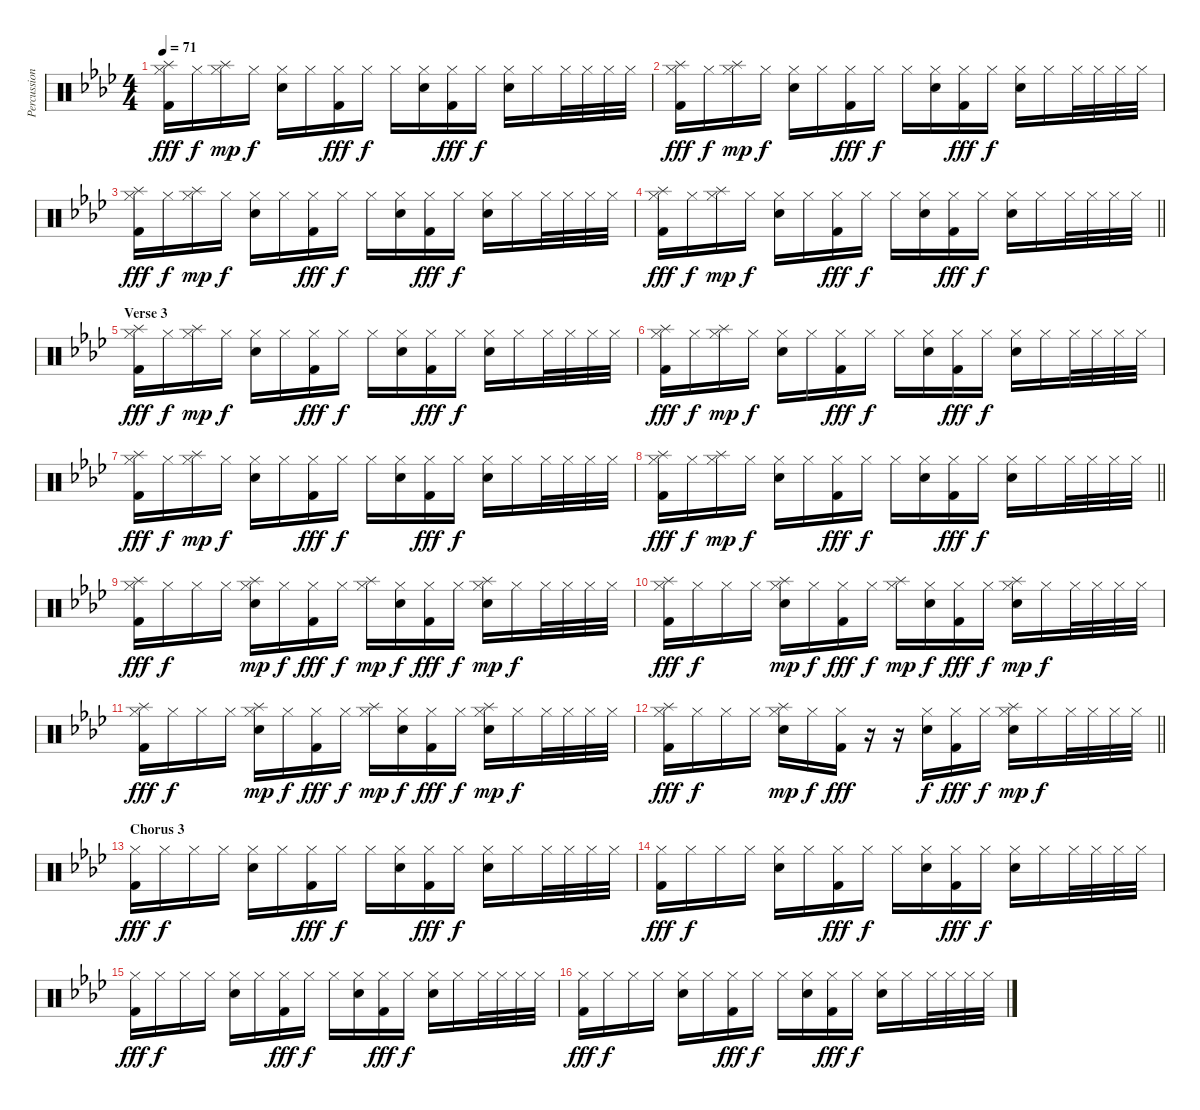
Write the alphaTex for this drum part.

\track ("Percussion" "Percussion") {instrument percussion}
\staff {score}
\articulation defaults
\ts (4 4)
\tempo 71
\clef neutral
\ks ab
("Splash (hit)" "Hi-Hat (closed)" "Kick (hit) 2").16{dy fff} "Hi-Hat (closed)".16{dy f} ("Splash (hit)" "Hi-Hat (closed)").16{dy mp} "Hi-Hat (closed)".16{dy f} ("Hi-Hat (closed)" "Snare (hit) 2").16 "Hi-Hat (closed)".16 ("Hi-Hat (closed)" "Kick (hit) 2").16{dy fff} "Hi-Hat (closed)".16{dy f} "Hi-Hat (closed)".16 ("Hi-Hat (closed)" "Snare (hit) 2").16 ("Hi-Hat (closed)" "Kick (hit) 2").16{dy fff} "Hi-Hat (closed)".16{dy f} ("Hi-Hat (closed)" "Snare (hit) 2").16 "Hi-Hat (closed)".16 "Hi-Hat (closed)".32 "Hi-Hat (closed)".32 "Hi-Hat (closed)".32 "Hi-Hat (closed)".32 |
("Splash (hit)" "Hi-Hat (closed)" "Kick (hit) 2").16{dy fff} "Hi-Hat (closed)".16{dy f} ("Splash (hit)" "Hi-Hat (closed)").16{dy mp} "Hi-Hat (closed)".16{dy f} ("Hi-Hat (closed)" "Snare (hit) 2").16 "Hi-Hat (closed)".16 ("Hi-Hat (closed)" "Kick (hit) 2").16{dy fff} "Hi-Hat (closed)".16{dy f} "Hi-Hat (closed)".16 ("Hi-Hat (closed)" "Snare (hit) 2").16 ("Hi-Hat (closed)" "Kick (hit) 2").16{dy fff} "Hi-Hat (closed)".16{dy f} ("Hi-Hat (closed)" "Snare (hit) 2").16 "Hi-Hat (closed)".16 "Hi-Hat (closed)".32 "Hi-Hat (closed)".32 "Hi-Hat (closed)".32 "Hi-Hat (closed)".32 |
("Splash (hit)" "Hi-Hat (closed)" "Kick (hit) 2").16{dy fff} "Hi-Hat (closed)".16{dy f} ("Splash (hit)" "Hi-Hat (closed)").16{dy mp} "Hi-Hat (closed)".16{dy f} ("Hi-Hat (closed)" "Snare (hit) 2").16 "Hi-Hat (closed)".16 ("Hi-Hat (closed)" "Kick (hit) 2").16{dy fff} "Hi-Hat (closed)".16{dy f} "Hi-Hat (closed)".16 ("Hi-Hat (closed)" "Snare (hit) 2").16 ("Hi-Hat (closed)" "Kick (hit) 2").16{dy fff} "Hi-Hat (closed)".16{dy f} ("Hi-Hat (closed)" "Snare (hit) 2").16 "Hi-Hat (closed)".16 "Hi-Hat (closed)".32 "Hi-Hat (closed)".32 "Hi-Hat (closed)".32 "Hi-Hat (closed)".32 |
\barLineRight lightlight
("Splash (hit)" "Hi-Hat (closed)" "Kick (hit) 2").16{dy fff} "Hi-Hat (closed)".16{dy f} ("Splash (hit)" "Hi-Hat (closed)").16{dy mp} "Hi-Hat (closed)".16{dy f} ("Hi-Hat (closed)" "Snare (hit) 2").16 "Hi-Hat (closed)".16 ("Hi-Hat (closed)" "Kick (hit) 2").16{dy fff} "Hi-Hat (closed)".16{dy f} "Hi-Hat (closed)".16 ("Hi-Hat (closed)" "Snare (hit) 2").16 ("Hi-Hat (closed)" "Kick (hit) 2").16{dy fff} "Hi-Hat (closed)".16{dy f} ("Hi-Hat (closed)" "Snare (hit) 2").16 "Hi-Hat (closed)".16 "Hi-Hat (closed)".32 "Hi-Hat (closed)".32 "Hi-Hat (closed)".32 "Hi-Hat (closed)".32 |
\section ("" "Verse 3")
("Splash (hit)" "Hi-Hat (closed)" "Kick (hit) 2").16{dy fff} "Hi-Hat (closed)".16{dy f} ("Splash (hit)" "Hi-Hat (closed)").16{dy mp} "Hi-Hat (closed)".16{dy f} ("Hi-Hat (closed)" "Snare (hit) 2").16 "Hi-Hat (closed)".16 ("Hi-Hat (closed)" "Kick (hit) 2").16{dy fff} "Hi-Hat (closed)".16{dy f} "Hi-Hat (closed)".16 ("Hi-Hat (closed)" "Snare (hit) 2").16 ("Hi-Hat (closed)" "Kick (hit) 2").16{dy fff} "Hi-Hat (closed)".16{dy f} ("Hi-Hat (closed)" "Snare (hit) 2").16 "Hi-Hat (closed)".16 "Hi-Hat (closed)".32 "Hi-Hat (closed)".32 "Hi-Hat (closed)".32 "Hi-Hat (closed)".32 |
("Splash (hit)" "Hi-Hat (closed)" "Kick (hit) 2").16{dy fff} "Hi-Hat (closed)".16{dy f} ("Splash (hit)" "Hi-Hat (closed)").16{dy mp} "Hi-Hat (closed)".16{dy f} ("Hi-Hat (closed)" "Snare (hit) 2").16 "Hi-Hat (closed)".16 ("Hi-Hat (closed)" "Kick (hit) 2").16{dy fff} "Hi-Hat (closed)".16{dy f} "Hi-Hat (closed)".16 ("Hi-Hat (closed)" "Snare (hit) 2").16 ("Hi-Hat (closed)" "Kick (hit) 2").16{dy fff} "Hi-Hat (closed)".16{dy f} ("Hi-Hat (closed)" "Snare (hit) 2").16 "Hi-Hat (closed)".16 "Hi-Hat (closed)".32 "Hi-Hat (closed)".32 "Hi-Hat (closed)".32 "Hi-Hat (closed)".32 |
("Splash (hit)" "Hi-Hat (closed)" "Kick (hit) 2").16{dy fff} "Hi-Hat (closed)".16{dy f} ("Splash (hit)" "Hi-Hat (closed)").16{dy mp} "Hi-Hat (closed)".16{dy f} ("Hi-Hat (closed)" "Snare (hit) 2").16 "Hi-Hat (closed)".16 ("Hi-Hat (closed)" "Kick (hit) 2").16{dy fff} "Hi-Hat (closed)".16{dy f} "Hi-Hat (closed)".16 ("Hi-Hat (closed)" "Snare (hit) 2").16 ("Hi-Hat (closed)" "Kick (hit) 2").16{dy fff} "Hi-Hat (closed)".16{dy f} ("Hi-Hat (closed)" "Snare (hit) 2").16 "Hi-Hat (closed)".16 "Hi-Hat (closed)".32 "Hi-Hat (closed)".32 "Hi-Hat (closed)".32 "Hi-Hat (closed)".32 |
\barLineRight lightlight
("Splash (hit)" "Hi-Hat (closed)" "Kick (hit) 2").16{dy fff} "Hi-Hat (closed)".16{dy f} ("Splash (hit)" "Hi-Hat (closed)").16{dy mp} "Hi-Hat (closed)".16{dy f} ("Hi-Hat (closed)" "Snare (hit) 2").16 "Hi-Hat (closed)".16 ("Hi-Hat (closed)" "Kick (hit) 2").16{dy fff} "Hi-Hat (closed)".16{dy f} "Hi-Hat (closed)".16 ("Hi-Hat (closed)" "Snare (hit) 2").16 ("Hi-Hat (closed)" "Kick (hit) 2").16{dy fff} "Hi-Hat (closed)".16{dy f} ("Hi-Hat (closed)" "Snare (hit) 2").16 "Hi-Hat (closed)".16 "Hi-Hat (closed)".32 "Hi-Hat (closed)".32 "Hi-Hat (closed)".32 "Hi-Hat (closed)".32 |
("Splash (hit)" "Hi-Hat (closed)" "Kick (hit) 2").16{dy fff} "Hi-Hat (closed)".16{dy f} "Hi-Hat (closed)".16 "Hi-Hat (closed)".16 ("Splash (hit)" "Hi-Hat (closed)" "Snare (hit) 2").16{dy mp} "Hi-Hat (closed)".16{dy f} ("Hi-Hat (closed)" "Kick (hit) 2").16{dy fff} "Hi-Hat (closed)".16{dy f} ("Splash (hit)" "Hi-Hat (closed)").16{dy mp} ("Hi-Hat (closed)" "Snare (hit) 2").16{dy f} ("Hi-Hat (closed)" "Kick (hit) 2").16{dy fff} "Hi-Hat (closed)".16{dy f} ("Splash (hit)" "Hi-Hat (closed)" "Snare (hit) 2").16{dy mp} "Hi-Hat (closed)".16{dy f} "Hi-Hat (closed)".32 "Hi-Hat (closed)".32 "Hi-Hat (closed)".32 "Hi-Hat (closed)".32 |
("Splash (hit)" "Hi-Hat (closed)" "Kick (hit) 2").16{dy fff} "Hi-Hat (closed)".16{dy f} "Hi-Hat (closed)".16 "Hi-Hat (closed)".16 ("Splash (hit)" "Hi-Hat (closed)" "Snare (hit) 2").16{dy mp} "Hi-Hat (closed)".16{dy f} ("Hi-Hat (closed)" "Kick (hit) 2").16{dy fff} "Hi-Hat (closed)".16{dy f} ("Splash (hit)" "Hi-Hat (closed)").16{dy mp} ("Hi-Hat (closed)" "Snare (hit) 2").16{dy f} ("Hi-Hat (closed)" "Kick (hit) 2").16{dy fff} "Hi-Hat (closed)".16{dy f} ("Splash (hit)" "Hi-Hat (closed)" "Snare (hit) 2").16{dy mp} "Hi-Hat (closed)".16{dy f} "Hi-Hat (closed)".32 "Hi-Hat (closed)".32 "Hi-Hat (closed)".32 "Hi-Hat (closed)".32 |
("Splash (hit)" "Hi-Hat (closed)" "Kick (hit) 2").16{dy fff} "Hi-Hat (closed)".16{dy f} "Hi-Hat (closed)".16 "Hi-Hat (closed)".16 ("Splash (hit)" "Hi-Hat (closed)" "Snare (hit) 2").16{dy mp} "Hi-Hat (closed)".16{dy f} ("Hi-Hat (closed)" "Kick (hit) 2").16{dy fff} "Hi-Hat (closed)".16{dy f} ("Splash (hit)" "Hi-Hat (closed)").16{dy mp} ("Hi-Hat (closed)" "Snare (hit) 2").16{dy f} ("Hi-Hat (closed)" "Kick (hit) 2").16{dy fff} "Hi-Hat (closed)".16{dy f} ("Splash (hit)" "Hi-Hat (closed)" "Snare (hit) 2").16{dy mp} "Hi-Hat (closed)".16{dy f} "Hi-Hat (closed)".32 "Hi-Hat (closed)".32 "Hi-Hat (closed)".32 "Hi-Hat (closed)".32 |
\barLineRight lightlight
("Splash (hit)" "Hi-Hat (closed)" "Kick (hit) 2").16{dy fff} "Hi-Hat (closed)".16{dy f} "Hi-Hat (closed)".16 "Hi-Hat (closed)".16 ("Splash (hit)" "Hi-Hat (closed)" "Snare (hit) 2").16{dy mp} "Hi-Hat (closed)".16{dy f} ("Hi-Hat (closed)" "Kick (hit) 2").16{dy fff} r.16 r.16 ("Hi-Hat (closed)" "Snare (hit) 2").16{dy f} ("Hi-Hat (closed)" "Kick (hit) 2").16{dy fff} "Hi-Hat (closed)".16{dy f} ("Splash (hit)" "Hi-Hat (closed)" "Snare (hit) 2").16{dy mp} "Hi-Hat (closed)".16{dy f} "Hi-Hat (closed)".32 "Hi-Hat (closed)".32 "Hi-Hat (closed)".32 "Hi-Hat (closed)".32 |
\section ("" "Chorus 3")
("Hi-Hat (closed)" "Kick (hit) 2").16{dy fff} "Hi-Hat (closed)".16{dy f} "Hi-Hat (closed)".16 "Hi-Hat (closed)".16 ("Hi-Hat (closed)" "Snare (hit) 2").16 "Hi-Hat (closed)".16 ("Hi-Hat (closed)" "Kick (hit) 2").16{dy fff} "Hi-Hat (closed)".16{dy f} "Hi-Hat (closed)".16 ("Hi-Hat (closed)" "Snare (hit) 2").16 ("Hi-Hat (closed)" "Kick (hit) 2").16{dy fff} "Hi-Hat (closed)".16{dy f} ("Hi-Hat (closed)" "Snare (hit) 2").16 "Hi-Hat (closed)".16 "Hi-Hat (closed)".32 "Hi-Hat (closed)".32 "Hi-Hat (closed)".32 "Hi-Hat (closed)".32 |
("Hi-Hat (closed)" "Kick (hit) 2").16{dy fff} "Hi-Hat (closed)".16{dy f} "Hi-Hat (closed)".16 "Hi-Hat (closed)".16 ("Hi-Hat (closed)" "Snare (hit) 2").16 "Hi-Hat (closed)".16 ("Hi-Hat (closed)" "Kick (hit) 2").16{dy fff} "Hi-Hat (closed)".16{dy f} "Hi-Hat (closed)".16 ("Hi-Hat (closed)" "Snare (hit) 2").16 ("Hi-Hat (closed)" "Kick (hit) 2").16{dy fff} "Hi-Hat (closed)".16{dy f} ("Hi-Hat (closed)" "Snare (hit) 2").16 "Hi-Hat (closed)".16 "Hi-Hat (closed)".32 "Hi-Hat (closed)".32 "Hi-Hat (closed)".32 "Hi-Hat (closed)".32 |
("Hi-Hat (closed)" "Kick (hit) 2").16{dy fff} "Hi-Hat (closed)".16{dy f} "Hi-Hat (closed)".16 "Hi-Hat (closed)".16 ("Hi-Hat (closed)" "Snare (hit) 2").16 "Hi-Hat (closed)".16 ("Hi-Hat (closed)" "Kick (hit) 2").16{dy fff} "Hi-Hat (closed)".16{dy f} "Hi-Hat (closed)".16 ("Hi-Hat (closed)" "Snare (hit) 2").16 ("Hi-Hat (closed)" "Kick (hit) 2").16{dy fff} "Hi-Hat (closed)".16{dy f} ("Hi-Hat (closed)" "Snare (hit) 2").16 "Hi-Hat (closed)".16 "Hi-Hat (closed)".32 "Hi-Hat (closed)".32 "Hi-Hat (closed)".32 "Hi-Hat (closed)".32 |
("Hi-Hat (closed)" "Kick (hit) 2").16{dy fff} "Hi-Hat (closed)".16{dy f} "Hi-Hat (closed)".16 "Hi-Hat (closed)".16 ("Hi-Hat (closed)" "Snare (hit) 2").16 "Hi-Hat (closed)".16 ("Hi-Hat (closed)" "Kick (hit) 2").16{dy fff} "Hi-Hat (closed)".16{dy f} "Hi-Hat (closed)".16 ("Hi-Hat (closed)" "Snare (hit) 2").16 ("Hi-Hat (closed)" "Kick (hit) 2").16{dy fff} "Hi-Hat (closed)".16{dy f} ("Hi-Hat (closed)" "Snare (hit) 2").16 "Hi-Hat (closed)".16 "Hi-Hat (closed)".32 "Hi-Hat (closed)".32 "Hi-Hat (closed)".32 "Hi-Hat (closed)".32
